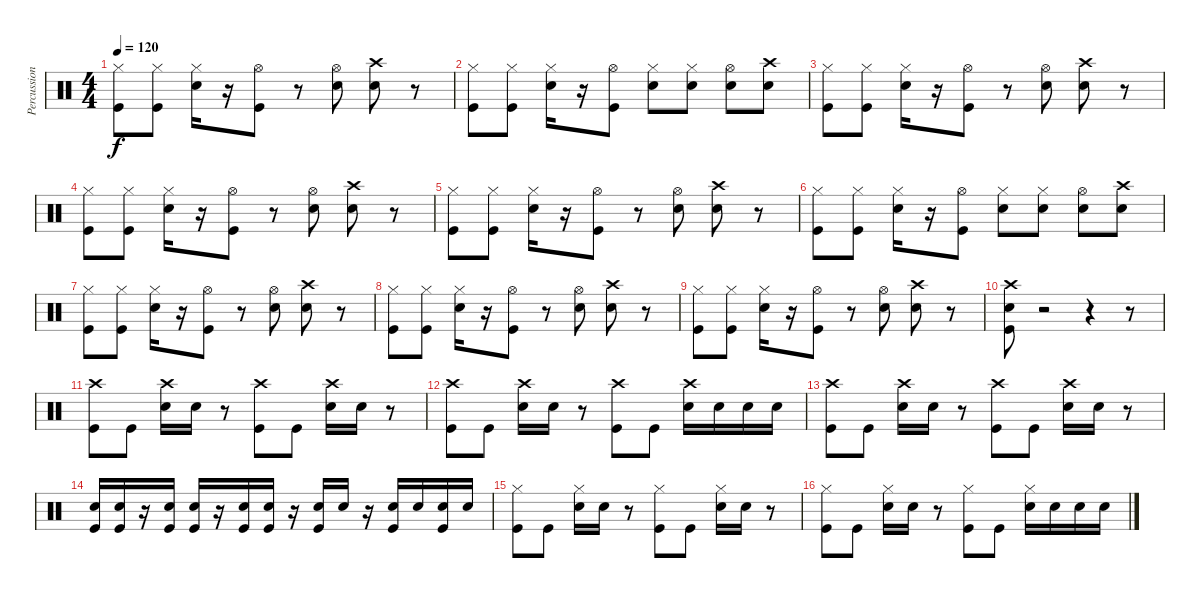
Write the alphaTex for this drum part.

\track ("Percussion" "Percussion") {instrument percussion}
\staff {score}
\articulation defaults
\ts (4 4)
\tempo 120
\clef neutral
\ks c
("Hi-Hat (closed)" "Kick (hit)").8{dy f} ("Hi-Hat (closed)" "Kick (hit)").8 ("Hi-Hat (closed)" "Snare (hit) 2").16 r.16 ("Hi-Hat (open)" "Kick (hit)").8 r.8 ("Hi-Hat (open)" "Snare (hit) 2").8 ("Crash high (hit)" "Snare (hit) 2").8 r.8 |
("Hi-Hat (closed)" "Kick (hit)").8 ("Hi-Hat (closed)" "Kick (hit)").8 ("Hi-Hat (closed)" "Snare (hit) 2").16 r.16 ("Hi-Hat (open)" "Kick (hit)").8 ("Hi-Hat (closed)" "Electric Snare (hit)").8 ("Hi-Hat (closed)" "Electric Snare (hit)").8 ("Hi-Hat (open)" "Snare (hit) 2").8 ("Crash high (hit)" "Snare (hit) 2").8 |
("Hi-Hat (closed)" "Kick (hit)").8 ("Hi-Hat (closed)" "Kick (hit)").8 ("Hi-Hat (closed)" "Snare (hit) 2").16 r.16 ("Hi-Hat (open)" "Kick (hit)").8 r.8 ("Hi-Hat (open)" "Snare (hit) 2").8 ("Crash high (hit)" "Snare (hit) 2").8 r.8 |
("Hi-Hat (closed)" "Kick (hit)").8 ("Hi-Hat (closed)" "Kick (hit)").8 ("Hi-Hat (closed)" "Snare (hit) 2").16 r.16 ("Hi-Hat (open)" "Kick (hit)").8 r.8 ("Hi-Hat (open)" "Snare (hit) 2").8 ("Crash high (hit)" "Snare (hit) 2").8 r.8 |
("Hi-Hat (closed)" "Kick (hit)").8 ("Hi-Hat (closed)" "Kick (hit)").8 ("Hi-Hat (closed)" "Snare (hit) 2").16 r.16 ("Hi-Hat (open)" "Kick (hit)").8 r.8 ("Hi-Hat (open)" "Snare (hit) 2").8 ("Crash high (hit)" "Snare (hit) 2").8 r.8 |
("Hi-Hat (closed)" "Kick (hit)").8 ("Hi-Hat (closed)" "Kick (hit)").8 ("Hi-Hat (closed)" "Snare (hit) 2").16 r.16 ("Hi-Hat (open)" "Kick (hit)").8 ("Hi-Hat (closed)" "Electric Snare (hit)").8 ("Hi-Hat (closed)" "Electric Snare (hit)").8 ("Hi-Hat (open)" "Snare (hit) 2").8 ("Crash high (hit)" "Snare (hit) 2").8 |
("Hi-Hat (closed)" "Kick (hit)").8 ("Hi-Hat (closed)" "Kick (hit)").8 ("Hi-Hat (closed)" "Snare (hit) 2").16 r.16 ("Hi-Hat (open)" "Kick (hit)").8 r.8 ("Hi-Hat (open)" "Snare (hit) 2").8 ("Crash high (hit)" "Snare (hit) 2").8 r.8 |
("Hi-Hat (closed)" "Kick (hit)").8 ("Hi-Hat (closed)" "Kick (hit)").8 ("Hi-Hat (closed)" "Snare (hit) 2").16 r.16 ("Hi-Hat (open)" "Kick (hit)").8 r.8 ("Hi-Hat (open)" "Snare (hit) 2").8 ("Crash high (hit)" "Snare (hit) 2").8 r.8 |
("Hi-Hat (closed)" "Kick (hit)").8 ("Hi-Hat (closed)" "Kick (hit)").8 ("Hi-Hat (closed)" "Snare (hit) 2").16 r.16 ("Hi-Hat (open)" "Kick (hit)").8 r.8 ("Hi-Hat (open)" "Snare (hit) 2").8 ("Crash high (hit)" "Snare (hit) 2").8 r.8 |
("Crash high (hit)" "Snare (hit) 2" "Kick (hit)").8 r.2 r.4 r.8 |
("Crash high (hit)" "Kick (hit)").8 "Kick (hit)".8 ("Crash high (hit)" "Snare (hit) 2").16 "Snare (hit) 2".16 r.8 ("Crash high (hit)" "Kick (hit)").8 "Kick (hit)".8 ("Crash high (hit)" "Snare (hit) 2").16 "Snare (hit) 2".16 r.8 |
("Crash high (hit)" "Kick (hit)").8 "Kick (hit)".8 ("Crash high (hit)" "Snare (hit) 2").16 "Snare (hit) 2".16 r.8 ("Crash high (hit)" "Kick (hit)").8 "Kick (hit)".8 ("Crash high (hit)" "Snare (hit) 2").16 "Snare (hit) 2".16 "Electric Snare (hit)".16 "Snare (hit) 2".16 |
("Crash high (hit)" "Kick (hit)").8 "Kick (hit)".8 ("Crash high (hit)" "Snare (hit) 2").16 "Snare (hit) 2".16 r.8 ("Crash high (hit)" "Kick (hit)").8 "Kick (hit)".8 ("Crash high (hit)" "Snare (hit) 2").16 "Snare (hit) 2".16 r.8 |
("Snare (hit) 2" "Kick (hit)").16 ("Snare (hit) 2" "Kick (hit)").16 r.16 ("Snare (hit) 2" "Kick (hit)").16 ("Snare (hit) 2" "Kick (hit)").16 r.16 ("Snare (hit) 2" "Kick (hit)").16 ("Snare (hit) 2" "Kick (hit)").16 r.16 ("Snare (hit) 2" "Kick (hit)").16 "Snare (hit) 2".16 r.16 ("Snare (hit) 2" "Kick (hit)").16 "Snare (hit) 2".16 ("Snare (hit) 2" "Kick (hit)").16 "Snare (hit) 2".16 |
("Hi-Hat (closed)" "Kick (hit)").8 "Kick (hit)".8 ("Hi-Hat (closed)" "Snare (hit) 2").16 "Snare (hit) 2".16 r.8 ("Hi-Hat (closed)" "Kick (hit)").8 "Kick (hit)".8 ("Hi-Hat (closed)" "Snare (hit) 2").16 "Snare (hit) 2".16 r.8 |
("Hi-Hat (closed)" "Kick (hit)").8 "Kick (hit)".8 ("Hi-Hat (closed)" "Snare (hit) 2").16 "Snare (hit) 2".16 r.8 ("Hi-Hat (closed)" "Kick (hit)").8 "Kick (hit)".8 ("Hi-Hat (closed)" "Snare (hit) 2").16 "Snare (hit) 2".16 "Electric Snare (hit)".16 "Snare (hit) 2".16
